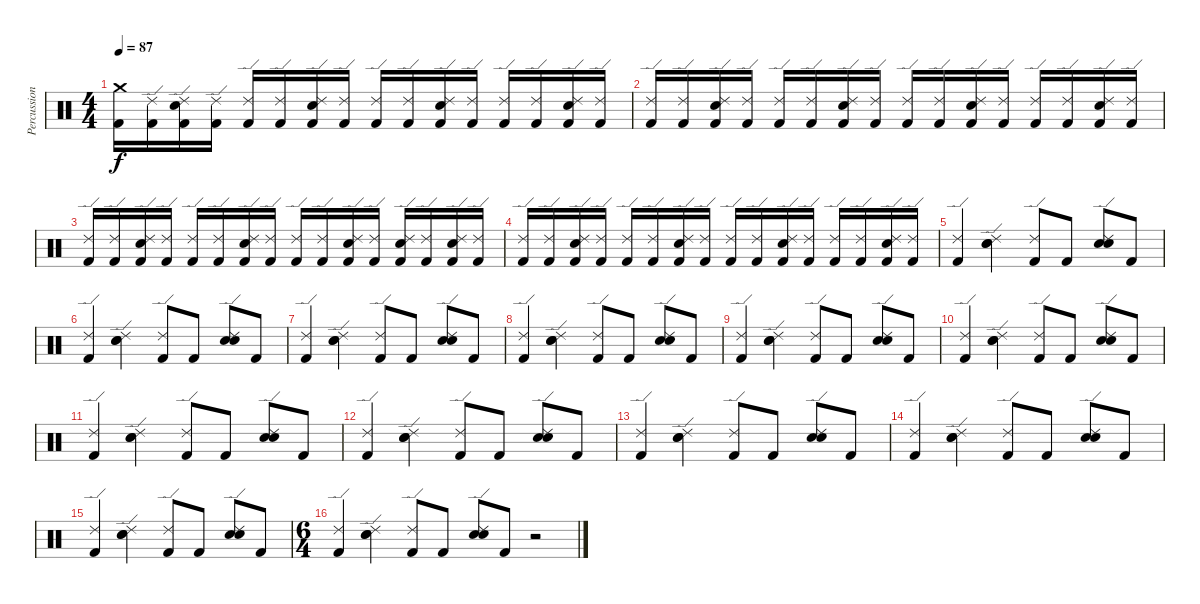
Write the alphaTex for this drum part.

\track ("Percussion" "Percussion") {instrument percussion}
\staff {score}
\articulation defaults
\ts (4 4)
\tempo 87
\clef neutral
\ks c
("Crash medium (hit)" "Kick (hit) 2").16{dy f} ("Ride (edge) 2" "Kick (hit) 2").16 ("Ride (edge) 2" "Snare (hit) 2" "Kick (hit) 2").16 ("Ride (edge) 2" "Kick (hit) 2").16 ("Ride (edge) 2" "Kick (hit) 2").16 ("Ride (edge) 2" "Kick (hit) 2").16 ("Ride (edge) 2" "Snare (hit) 2" "Kick (hit) 2").16 ("Ride (edge) 2" "Kick (hit) 2").16 ("Ride (edge) 2" "Kick (hit) 2").16 ("Ride (edge) 2" "Kick (hit) 2").16 ("Ride (edge) 2" "Snare (hit) 2" "Kick (hit) 2").16 ("Ride (edge) 2" "Kick (hit) 2").16 ("Ride (edge) 2" "Kick (hit) 2").16 ("Ride (edge) 2" "Kick (hit) 2").16 ("Ride (edge) 2" "Snare (hit) 2" "Kick (hit) 2").16 ("Ride (edge) 2" "Kick (hit) 2").16 |
("Ride (edge) 2" "Kick (hit) 2").16 ("Ride (edge) 2" "Kick (hit) 2").16 ("Ride (edge) 2" "Snare (hit) 2" "Kick (hit) 2").16 ("Ride (edge) 2" "Kick (hit) 2").16 ("Ride (edge) 2" "Kick (hit) 2").16 ("Ride (edge) 2" "Kick (hit) 2").16 ("Ride (edge) 2" "Snare (hit) 2" "Kick (hit) 2").16 ("Ride (edge) 2" "Kick (hit) 2").16 ("Ride (edge) 2" "Kick (hit) 2").16 ("Ride (edge) 2" "Kick (hit) 2").16 ("Ride (edge) 2" "Snare (hit) 2" "Kick (hit) 2").16 ("Ride (edge) 2" "Kick (hit) 2").16 ("Ride (edge) 2" "Kick (hit) 2").16 ("Ride (edge) 2" "Kick (hit) 2").16 ("Ride (edge) 2" "Snare (hit) 2" "Kick (hit) 2").16 ("Ride (edge) 2" "Kick (hit) 2").16 |
("Ride (edge) 2" "Kick (hit) 2").16 ("Ride (edge) 2" "Kick (hit) 2").16 ("Ride (edge) 2" "Snare (hit) 2" "Kick (hit) 2").16 ("Ride (edge) 2" "Kick (hit) 2").16 ("Ride (edge) 2" "Kick (hit) 2").16 ("Ride (edge) 2" "Kick (hit) 2").16 ("Ride (edge) 2" "Snare (hit) 2" "Kick (hit) 2").16 ("Ride (edge) 2" "Kick (hit) 2").16 ("Ride (edge) 2" "Kick (hit) 2").16 ("Ride (edge) 2" "Kick (hit) 2").16 ("Ride (edge) 2" "Snare (hit) 2" "Kick (hit) 2").16 ("Ride (edge) 2" "Kick (hit) 2").16 ("Ride (edge) 2" "Snare (hit) 2" "Kick (hit) 2").16 ("Ride (edge) 2" "Kick (hit) 2").16 ("Ride (edge) 2" "Snare (hit) 2" "Kick (hit) 2").16 ("Ride (edge) 2" "Kick (hit) 2").16 |
("Ride (edge) 2" "Kick (hit) 2").16 ("Ride (edge) 2" "Kick (hit) 2").16 ("Ride (edge) 2" "Snare (hit) 2" "Kick (hit) 2").16 ("Ride (edge) 2" "Kick (hit) 2").16 ("Ride (edge) 2" "Kick (hit) 2").16 ("Ride (edge) 2" "Kick (hit) 2").16 ("Ride (edge) 2" "Snare (hit) 2" "Kick (hit) 2").16 ("Ride (edge) 2" "Kick (hit) 2").16 ("Ride (edge) 2" "Kick (hit) 2").16 ("Ride (edge) 2" "Kick (hit) 2").16 ("Ride (edge) 2" "Snare (hit) 2" "Kick (hit) 2").16 ("Ride (edge) 2" "Kick (hit) 2").16 ("Ride (edge) 2" "Kick (hit) 2").16 ("Ride (edge) 2" "Kick (hit) 2").16 ("Ride (edge) 2" "Snare (hit) 2" "Kick (hit) 2").16 ("Ride (edge) 2" "Kick (hit) 2").16 |
("Ride (edge) 2" "Kick (hit) 2").4 ("Ride (edge) 2" "Hand Clap (hit)" "Snare (hit) 2").4 ("Ride (edge) 2" "Kick (hit) 2").8 "Kick (hit) 2".8 ("Ride (edge) 2" "Hand Clap (hit)" "Snare (hit) 2").8 "Kick (hit) 2".8 |
("Ride (edge) 2" "Kick (hit) 2").4 ("Ride (edge) 2" "Hand Clap (hit)" "Snare (hit) 2").4 ("Ride (edge) 2" "Kick (hit) 2").8 "Kick (hit) 2".8 ("Ride (edge) 2" "Hand Clap (hit)" "Snare (hit) 2").8 "Kick (hit) 2".8 |
("Ride (edge) 2" "Kick (hit) 2").4 ("Ride (edge) 2" "Hand Clap (hit)" "Snare (hit) 2").4 ("Ride (edge) 2" "Kick (hit) 2").8 "Kick (hit) 2".8 ("Ride (edge) 2" "Hand Clap (hit)" "Snare (hit) 2").8 "Kick (hit) 2".8 |
("Ride (edge) 2" "Kick (hit) 2").4 ("Ride (edge) 2" "Hand Clap (hit)" "Snare (hit) 2").4 ("Ride (edge) 2" "Kick (hit) 2").8 "Kick (hit) 2".8 ("Ride (edge) 2" "Hand Clap (hit)" "Snare (hit) 2").8 "Kick (hit) 2".8 |
("Ride (edge) 2" "Kick (hit) 2").4 ("Ride (edge) 2" "Hand Clap (hit)" "Snare (hit) 2").4 ("Ride (edge) 2" "Kick (hit) 2").8 "Kick (hit) 2".8 ("Ride (edge) 2" "Hand Clap (hit)" "Snare (hit) 2").8 "Kick (hit) 2".8 |
("Ride (edge) 2" "Kick (hit) 2").4 ("Ride (edge) 2" "Hand Clap (hit)" "Snare (hit) 2").4 ("Ride (edge) 2" "Kick (hit) 2").8 "Kick (hit) 2".8 ("Ride (edge) 2" "Hand Clap (hit)" "Snare (hit) 2").8 "Kick (hit) 2".8 |
("Ride (edge) 2" "Kick (hit) 2").4 ("Ride (edge) 2" "Hand Clap (hit)" "Snare (hit) 2").4 ("Ride (edge) 2" "Kick (hit) 2").8 "Kick (hit) 2".8 ("Ride (edge) 2" "Hand Clap (hit)" "Snare (hit) 2").8 "Kick (hit) 2".8 |
("Ride (edge) 2" "Kick (hit) 2").4 ("Ride (edge) 2" "Hand Clap (hit)" "Snare (hit) 2").4 ("Ride (edge) 2" "Kick (hit) 2").8 "Kick (hit) 2".8 ("Ride (edge) 2" "Hand Clap (hit)" "Snare (hit) 2").8 "Kick (hit) 2".8 |
("Ride (edge) 2" "Kick (hit) 2").4 ("Ride (edge) 2" "Hand Clap (hit)" "Snare (hit) 2").4 ("Ride (edge) 2" "Kick (hit) 2").8 "Kick (hit) 2".8 ("Ride (edge) 2" "Hand Clap (hit)" "Snare (hit) 2").8 "Kick (hit) 2".8 |
("Ride (edge) 2" "Kick (hit) 2").4 ("Ride (edge) 2" "Hand Clap (hit)" "Snare (hit) 2").4 ("Ride (edge) 2" "Kick (hit) 2").8 "Kick (hit) 2".8 ("Ride (edge) 2" "Hand Clap (hit)" "Snare (hit) 2").8 "Kick (hit) 2".8 |
("Ride (edge) 2" "Kick (hit) 2").4 ("Ride (edge) 2" "Hand Clap (hit)" "Snare (hit) 2").4 ("Ride (edge) 2" "Kick (hit) 2").8 "Kick (hit) 2".8 ("Ride (edge) 2" "Hand Clap (hit)" "Snare (hit) 2").8 "Kick (hit) 2".8 |
\ts (6 4)
("Ride (edge) 2" "Kick (hit) 2").4 ("Ride (edge) 2" "Hand Clap (hit)" "Snare (hit) 2").4 ("Ride (edge) 2" "Kick (hit) 2").8 "Kick (hit) 2".8 ("Ride (edge) 2" "Hand Clap (hit)" "Snare (hit) 2").8 "Kick (hit) 2".8 r.2
